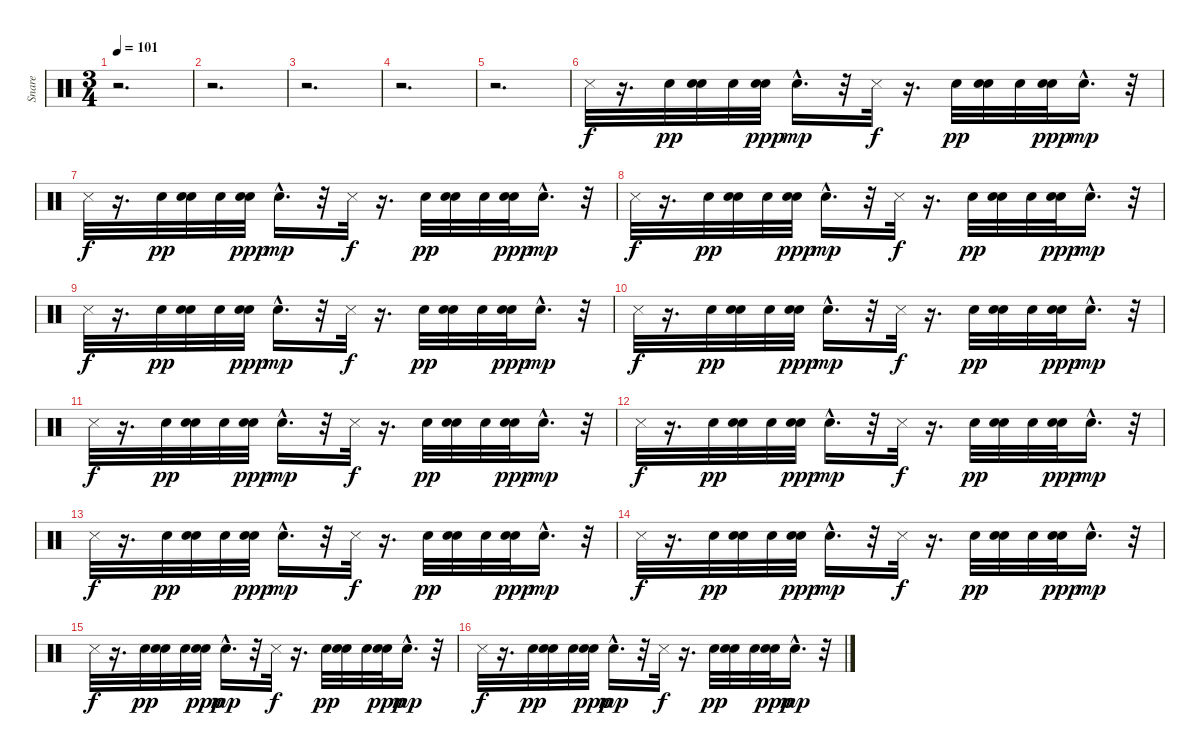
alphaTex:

\track ("Snare" "Snare") {instrument percussion}
\staff {score}
\articulation defaults
\ts (3 4)
\tempo 101
\clef neutral
\ks c
r.2{d dy f} |
r.2{d} |
r.2{d} |
r.2{d} |
r.2{d} |
"Metronome (hit)".32 r.16{d} "Snare (hit) 2".32{dy pp} ("Snare (hit) 2" "Snare (hit) 2").32 "Snare (hit) 2".32 ("Snare (hit) 2" "Snare (hit) 2").32{dy ppp} "Snare (hit) 2"{hac}.16{d dy mp} r.32 "Metronome (hit)".32{dy f} r.16{d} "Snare (hit) 2".32{dy pp} ("Snare (hit) 2" "Snare (hit) 2").32 "Snare (hit) 2".32 ("Snare (hit) 2" "Snare (hit) 2").32{dy ppp} "Snare (hit) 2"{hac}.16{d dy mp} r.32 |
"Metronome (hit)".32{dy f} r.16{d} "Snare (hit) 2".32{dy pp} ("Snare (hit) 2" "Snare (hit) 2").32 "Snare (hit) 2".32 ("Snare (hit) 2" "Snare (hit) 2").32{dy ppp} "Snare (hit) 2"{hac}.16{d dy mp} r.32 "Metronome (hit)".32{dy f} r.16{d} "Snare (hit) 2".32{dy pp} ("Snare (hit) 2" "Snare (hit) 2").32 "Snare (hit) 2".32 ("Snare (hit) 2" "Snare (hit) 2").32{dy ppp} "Snare (hit) 2"{hac}.16{d dy mp} r.32 |
"Metronome (hit)".32{dy f} r.16{d} "Snare (hit) 2".32{dy pp} ("Snare (hit) 2" "Snare (hit) 2").32 "Snare (hit) 2".32 ("Snare (hit) 2" "Snare (hit) 2").32{dy ppp} "Snare (hit) 2"{hac}.16{d dy mp} r.32 "Metronome (hit)".32{dy f} r.16{d} "Snare (hit) 2".32{dy pp} ("Snare (hit) 2" "Snare (hit) 2").32 "Snare (hit) 2".32 ("Snare (hit) 2" "Snare (hit) 2").32{dy ppp} "Snare (hit) 2"{hac}.16{d dy mp} r.32 |
"Metronome (hit)".32{dy f} r.16{d} "Snare (hit) 2".32{dy pp} ("Snare (hit) 2" "Snare (hit) 2").32 "Snare (hit) 2".32 ("Snare (hit) 2" "Snare (hit) 2").32{dy ppp} "Snare (hit) 2"{hac}.16{d dy mp} r.32 "Metronome (hit)".32{dy f} r.16{d} "Snare (hit) 2".32{dy pp} ("Snare (hit) 2" "Snare (hit) 2").32 "Snare (hit) 2".32 ("Snare (hit) 2" "Snare (hit) 2").32{dy ppp} "Snare (hit) 2"{hac}.16{d dy mp} r.32 |
"Metronome (hit)".32{dy f} r.16{d} "Snare (hit) 2".32{dy pp} ("Snare (hit) 2" "Snare (hit) 2").32 "Snare (hit) 2".32 ("Snare (hit) 2" "Snare (hit) 2").32{dy ppp} "Snare (hit) 2"{hac}.16{d dy mp} r.32 "Metronome (hit)".32{dy f} r.16{d} "Snare (hit) 2".32{dy pp} ("Snare (hit) 2" "Snare (hit) 2").32 "Snare (hit) 2".32 ("Snare (hit) 2" "Snare (hit) 2").32{dy ppp} "Snare (hit) 2"{hac}.16{d dy mp} r.32 |
"Metronome (hit)".32{dy f} r.16{d} "Snare (hit) 2".32{dy pp} ("Snare (hit) 2" "Snare (hit) 2").32 "Snare (hit) 2".32 ("Snare (hit) 2" "Snare (hit) 2").32{dy ppp} "Snare (hit) 2"{hac}.16{d dy mp} r.32 "Metronome (hit)".32{dy f} r.16{d} "Snare (hit) 2".32{dy pp} ("Snare (hit) 2" "Snare (hit) 2").32 "Snare (hit) 2".32 ("Snare (hit) 2" "Snare (hit) 2").32{dy ppp} "Snare (hit) 2"{hac}.16{d dy mp} r.32 |
"Metronome (hit)".32{dy f} r.16{d} "Snare (hit) 2".32{dy pp} ("Snare (hit) 2" "Snare (hit) 2").32 "Snare (hit) 2".32 ("Snare (hit) 2" "Snare (hit) 2").32{dy ppp} "Snare (hit) 2"{hac}.16{d dy mp} r.32 "Metronome (hit)".32{dy f} r.16{d} "Snare (hit) 2".32{dy pp} ("Snare (hit) 2" "Snare (hit) 2").32 "Snare (hit) 2".32 ("Snare (hit) 2" "Snare (hit) 2").32{dy ppp} "Snare (hit) 2"{hac}.16{d dy mp} r.32 |
"Metronome (hit)".32{dy f} r.16{d} "Snare (hit) 2".32{dy pp} ("Snare (hit) 2" "Snare (hit) 2").32 "Snare (hit) 2".32 ("Snare (hit) 2" "Snare (hit) 2").32{dy ppp} "Snare (hit) 2"{hac}.16{d dy mp} r.32 "Metronome (hit)".32{dy f} r.16{d} "Snare (hit) 2".32{dy pp} ("Snare (hit) 2" "Snare (hit) 2").32 "Snare (hit) 2".32 ("Snare (hit) 2" "Snare (hit) 2").32{dy ppp} "Snare (hit) 2"{hac}.16{d dy mp} r.32 |
"Metronome (hit)".32{dy f} r.16{d} "Snare (hit) 2".32{dy pp} ("Snare (hit) 2" "Snare (hit) 2").32 "Snare (hit) 2".32 ("Snare (hit) 2" "Snare (hit) 2").32{dy ppp} "Snare (hit) 2"{hac}.16{d dy mp} r.32 "Metronome (hit)".32{dy f} r.16{d} "Snare (hit) 2".32{dy pp} ("Snare (hit) 2" "Snare (hit) 2").32 "Snare (hit) 2".32 ("Snare (hit) 2" "Snare (hit) 2").32{dy ppp} "Snare (hit) 2"{hac}.16{d dy mp} r.32 |
"Metronome (hit)".32{dy f} r.16{d} "Snare (hit) 2".32{dy pp} ("Snare (hit) 2" "Snare (hit) 2").32 "Snare (hit) 2".32 ("Snare (hit) 2" "Snare (hit) 2").32{dy ppp} "Snare (hit) 2"{hac}.16{d dy mp} r.32 "Metronome (hit)".32{dy f} r.16{d} "Snare (hit) 2".32{dy pp} ("Snare (hit) 2" "Snare (hit) 2").32 "Snare (hit) 2".32 ("Snare (hit) 2" "Snare (hit) 2").32{dy ppp} "Snare (hit) 2"{hac}.16{d dy mp} r.32 |
"Metronome (hit)".32{dy f} r.16{d} "Snare (hit) 2".32{dy pp} ("Snare (hit) 2" "Snare (hit) 2").32 "Snare (hit) 2".32 ("Snare (hit) 2" "Snare (hit) 2").32{dy ppp} "Snare (hit) 2"{hac}.16{d dy mp} r.32 "Metronome (hit)".32{dy f} r.16{d} "Snare (hit) 2".32{dy pp} ("Snare (hit) 2" "Snare (hit) 2").32 "Snare (hit) 2".32 ("Snare (hit) 2" "Snare (hit) 2").32{dy ppp} "Snare (hit) 2"{hac}.16{d dy mp} r.32
